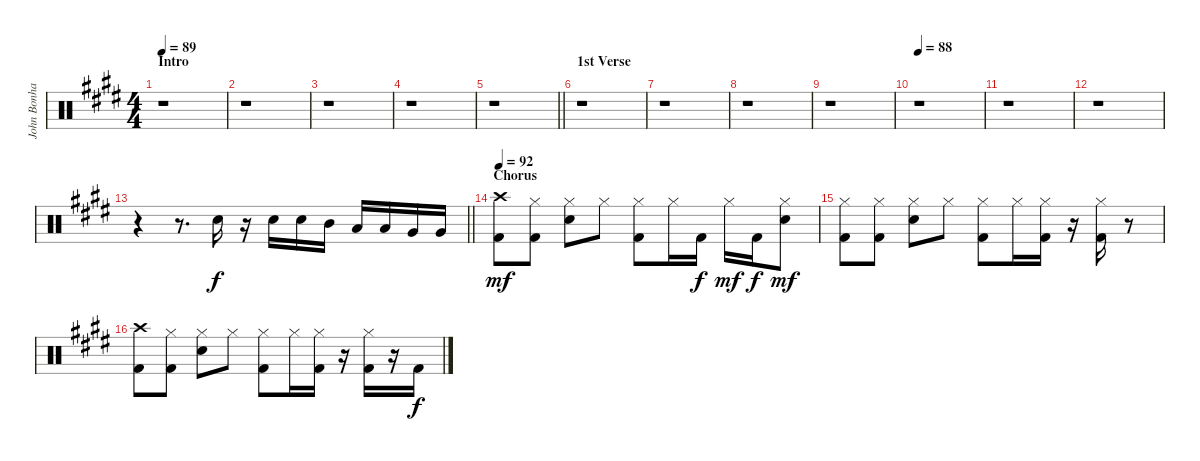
\track ("John Bonham Drums" "John Bonha") {instrument percussion}
\staff {score}
\articulation defaults
\ts (4 4)
\section ("" "Intro")
\tempo 89
\clef neutral
\ks e
r.1{dy f} |
r.1 |
r.1 |
r.1 |
\barLineRight lightlight
r.1 |
\section ("" "1st Verse")
r.1 |
r.1 |
r.1 |
r.1 |
\tempo 88
r.1 |
r.1 |
r.1 |
\barLineRight lightlight
r.4 r.8{d} "Snare (hit) 2".16 r.16 "Snare (hit) 2".16 "Snare (hit) 2".16 "Mid Tom (hit)".16 "Low Tom (hit)".16 "Low Tom (hit)".16 "Very Low Tom (hit)".16 "Very Low Tom (hit)".16 |
\section ("" "Chorus")
\tempo 92
("Crash high (hit)" "Kick (hit) 2").8{dy mf} ("Hi-Hat (closed)" "Kick (hit) 2").8 ("Hi-Hat (closed)" "Snare (hit) 2").8 "Hi-Hat (closed)".8 ("Hi-Hat (closed)" "Kick (hit) 2").8 "Hi-Hat (closed)".16 "Kick (hit) 2".16{dy f} "Hi-Hat (closed)".16{dy mf} "Kick (hit) 2".16{dy f} ("Hi-Hat (closed)" "Snare (hit) 2").8{dy mf} |
("Hi-Hat (closed)" "Kick (hit) 2").8 ("Hi-Hat (closed)" "Kick (hit) 2").8 ("Hi-Hat (closed)" "Snare (hit) 2").8 "Hi-Hat (closed)".8 ("Hi-Hat (closed)" "Kick (hit) 2").8 "Hi-Hat (closed)".16 ("Hi-Hat (closed)" "Kick (hit) 2").16 r.16 ("Hi-Hat (closed)" "Kick (hit) 2").16 r.8 |
("Crash high (hit)" "Kick (hit) 2").8 ("Hi-Hat (closed)" "Kick (hit) 2").8 ("Hi-Hat (closed)" "Snare (hit) 2").8 "Hi-Hat (closed)".8 ("Hi-Hat (closed)" "Kick (hit) 2").8 "Hi-Hat (closed)".16 ("Hi-Hat (closed)" "Kick (hit) 2").16 r.16 ("Hi-Hat (closed)" "Kick (hit) 2").16 r.16 "Kick (hit) 2".16{dy f}
